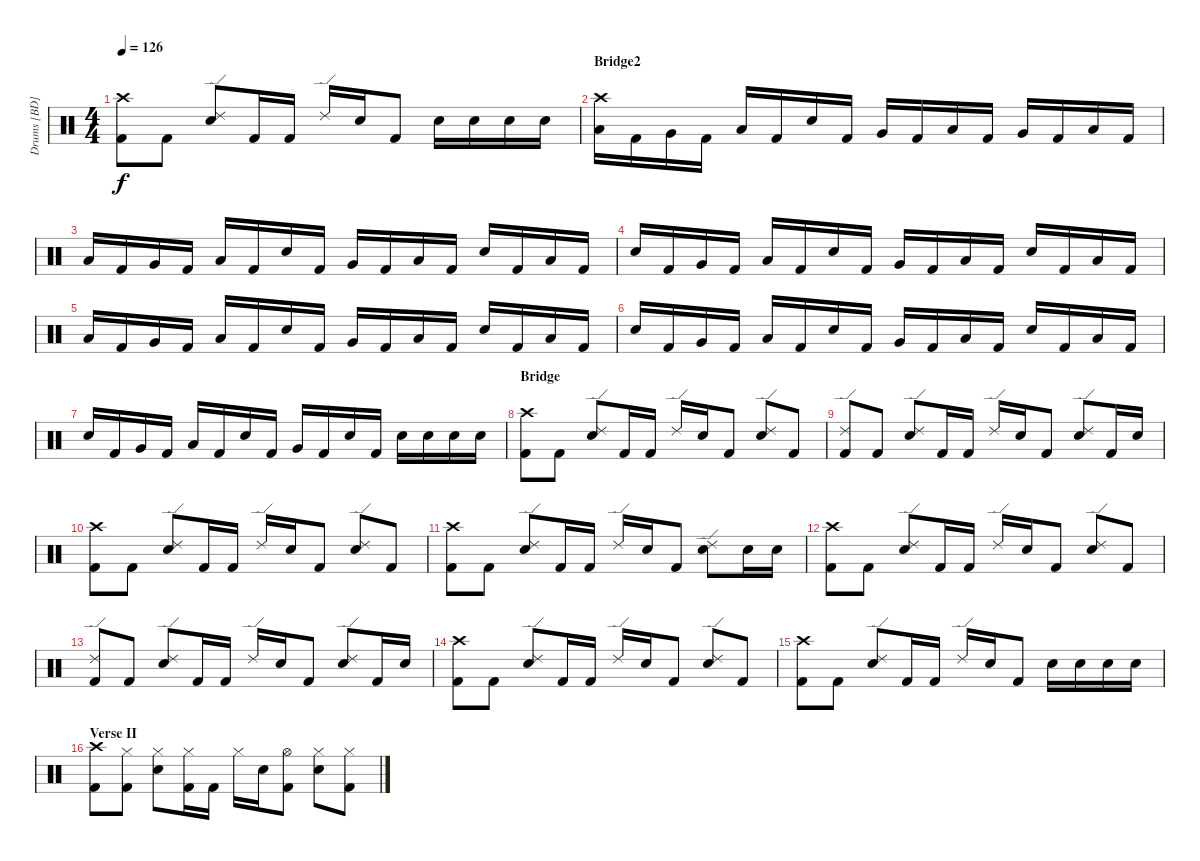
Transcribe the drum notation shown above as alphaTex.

\track ("Drums [BD]" "Drums [BD]") {instrument percussion}
\staff {score}
\articulation defaults
\ts (4 4)
\tempo 126
\clef neutral
\ks c
("Kick (hit) 2" "Crash high (hit)").8{dy f} "Kick (hit) 2".8 ("Electric Snare (hit)" "Ride (edge) 2").8 "Kick (hit) 2".16 "Kick (hit) 2".16 "Ride (edge) 2".16 "Electric Snare (hit)".16 "Kick (hit) 2".8 "Electric Snare (hit)".16 "Electric Snare (hit)".16 "Electric Snare (hit)".16 "Electric Snare (hit)".16 |
\section ("" "Bridge2")
("Low Tom (hit)" "Crash high (hit)").16 "Kick (hit) 2".16 "Very Low Tom (hit)".16 "Kick (hit) 2".16 "Low Floor Tom (hit)".16 "Kick (hit) 2".16 "Electric Snare (hit)".16 "Kick (hit) 2".16 "Very Low Tom (hit)".16 "Kick (hit) 2".16 "Low Floor Tom (hit)".16 "Kick (hit) 2".16 "Very Low Tom (hit)".16 "Kick (hit) 2".16 "Low Floor Tom (hit)".16 "Kick (hit) 2".16 |
"Low Tom (hit)".16 "Kick (hit) 2".16 "Very Low Tom (hit)".16 "Kick (hit) 2".16 "Low Floor Tom (hit)".16 "Kick (hit) 2".16 "Electric Snare (hit)".16 "Kick (hit) 2".16 "Very Low Tom (hit)".16 "Kick (hit) 2".16 "Low Floor Tom (hit)".16 "Kick (hit) 2".16 "Electric Snare (hit)".16 "Kick (hit) 2".16 "Low Floor Tom (hit)".16 "Kick (hit) 2".16 |
"Electric Snare (hit)".16 "Kick (hit) 2".16 "Very Low Tom (hit)".16 "Kick (hit) 2".16 "Low Floor Tom (hit)".16 "Kick (hit) 2".16 "Electric Snare (hit)".16 "Kick (hit) 2".16 "Very Low Tom (hit)".16 "Kick (hit) 2".16 "Low Floor Tom (hit)".16 "Kick (hit) 2".16 "Electric Snare (hit)".16 "Kick (hit) 2".16 "Low Floor Tom (hit)".16 "Kick (hit) 2".16 |
"Low Tom (hit)".16 "Kick (hit) 2".16 "Very Low Tom (hit)".16 "Kick (hit) 2".16 "Low Floor Tom (hit)".16 "Kick (hit) 2".16 "Electric Snare (hit)".16 "Kick (hit) 2".16 "Very Low Tom (hit)".16 "Kick (hit) 2".16 "Low Floor Tom (hit)".16 "Kick (hit) 2".16 "Electric Snare (hit)".16 "Kick (hit) 2".16 "Low Floor Tom (hit)".16 "Kick (hit) 2".16 |
"Electric Snare (hit)".16 "Kick (hit) 2".16 "Very Low Tom (hit)".16 "Kick (hit) 2".16 "Low Floor Tom (hit)".16 "Kick (hit) 2".16 "Electric Snare (hit)".16 "Kick (hit) 2".16 "Very Low Tom (hit)".16 "Kick (hit) 2".16 "Low Floor Tom (hit)".16 "Kick (hit) 2".16 "Electric Snare (hit)".16 "Kick (hit) 2".16 "Low Floor Tom (hit)".16 "Kick (hit) 2".16 |
"Electric Snare (hit)".16 "Kick (hit) 2".16 "Very Low Tom (hit)".16 "Kick (hit) 2".16 "Low Floor Tom (hit)".16 "Kick (hit) 2".16 "Electric Snare (hit)".16 "Kick (hit) 2".16 "Very Low Tom (hit)".16 "Kick (hit) 2".16 "Electric Snare (hit)".16 "Kick (hit) 2".16 "Electric Snare (hit)".16 "Electric Snare (hit)".16 "Electric Snare (hit)".16 "Electric Snare (hit)".16 |
\section ("" "Bridge")
("Kick (hit) 2" "Crash high (hit)").8 "Kick (hit) 2".8 ("Electric Snare (hit)" "Ride (edge) 2").8 "Kick (hit) 2".16 "Kick (hit) 2".16 "Ride (edge) 2".16 "Electric Snare (hit)".16 "Kick (hit) 2".8 ("Electric Snare (hit)" "Ride (edge) 2").8 "Kick (hit) 2".8 |
("Kick (hit) 2" "Ride (edge) 2").8 "Kick (hit) 2".8 ("Electric Snare (hit)" "Ride (edge) 2").8 "Kick (hit) 2".16 "Kick (hit) 2".16 "Ride (edge) 2".16 "Electric Snare (hit)".16 "Kick (hit) 2".8 ("Electric Snare (hit)" "Ride (edge) 2").8 "Kick (hit) 2".16 "Electric Snare (hit)".16 |
("Kick (hit) 2" "Crash high (hit)").8 "Kick (hit) 2".8 ("Electric Snare (hit)" "Ride (edge) 2").8 "Kick (hit) 2".16 "Kick (hit) 2".16 "Ride (edge) 2".16 "Electric Snare (hit)".16 "Kick (hit) 2".8 ("Electric Snare (hit)" "Ride (edge) 2").8 "Kick (hit) 2".8 |
("Kick (hit) 2" "Crash high (hit)").8 "Kick (hit) 2".8 ("Electric Snare (hit)" "Ride (edge) 2").8 "Kick (hit) 2".16 "Kick (hit) 2".16 "Ride (edge) 2".16 "Electric Snare (hit)".16 "Kick (hit) 2".8 ("Electric Snare (hit)" "Ride (edge) 2").8 "Electric Snare (hit)".16 "Electric Snare (hit)".16 |
("Kick (hit) 2" "Crash high (hit)").8 "Kick (hit) 2".8 ("Electric Snare (hit)" "Ride (edge) 2").8 "Kick (hit) 2".16 "Kick (hit) 2".16 "Ride (edge) 2".16 "Electric Snare (hit)".16 "Kick (hit) 2".8 ("Electric Snare (hit)" "Ride (edge) 2").8 "Kick (hit) 2".8 |
("Kick (hit) 2" "Ride (edge) 2").8 "Kick (hit) 2".8 ("Electric Snare (hit)" "Ride (edge) 2").8 "Kick (hit) 2".16 "Kick (hit) 2".16 "Ride (edge) 2".16 "Electric Snare (hit)".16 "Kick (hit) 2".8 ("Electric Snare (hit)" "Ride (edge) 2").8 "Kick (hit) 2".16 "Electric Snare (hit)".16 |
("Kick (hit) 2" "Crash high (hit)").8 "Kick (hit) 2".8 ("Electric Snare (hit)" "Ride (edge) 2").8 "Kick (hit) 2".16 "Kick (hit) 2".16 "Ride (edge) 2".16 "Electric Snare (hit)".16 "Kick (hit) 2".8 ("Electric Snare (hit)" "Ride (edge) 2").8 "Kick (hit) 2".8 |
("Kick (hit) 2" "Crash high (hit)").8 "Kick (hit) 2".8 ("Electric Snare (hit)" "Ride (edge) 2").8 "Kick (hit) 2".16 "Kick (hit) 2".16 "Ride (edge) 2".16 "Electric Snare (hit)".16 "Kick (hit) 2".8 "Electric Snare (hit)".16 "Electric Snare (hit)".16 "Electric Snare (hit)".16 "Electric Snare (hit)".16 |
\section ("" "Verse II")
("Kick (hit) 2" "Crash high (hit)").8 ("Kick (hit) 2" "Hi-Hat (closed)").8 ("Electric Snare (hit)" "Hi-Hat (closed)").8 ("Kick (hit) 2" "Hi-Hat (closed)").16 "Kick (hit) 2".16 "Hi-Hat (closed)".16 "Electric Snare (hit)".16 ("Kick (hit) 2" "Hi-Hat (open)").8 ("Electric Snare (hit)" "Hi-Hat (closed)").8 ("Kick (hit) 2" "Hi-Hat (closed)").8
